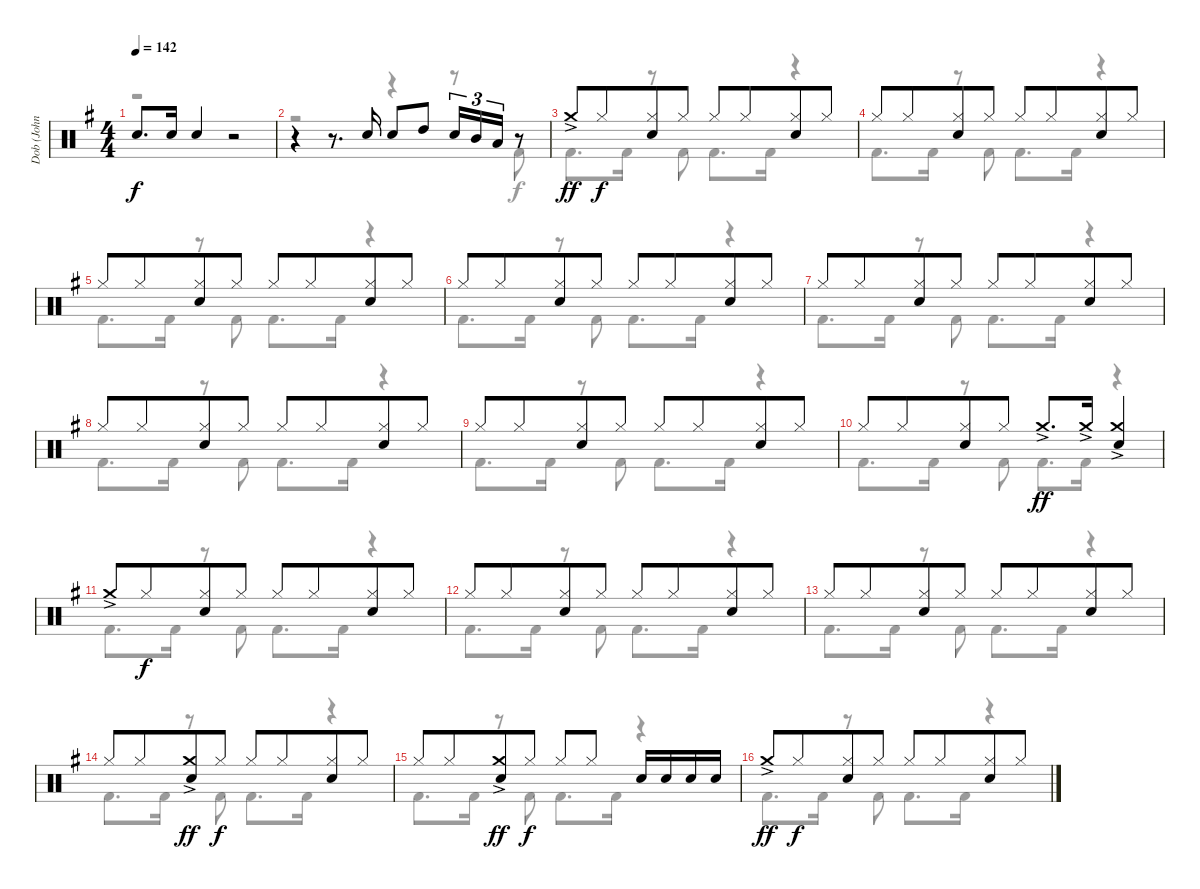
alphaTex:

\track ("Dob (John O'Reilly)" "Dob (John ") {instrument percussion}
\staff {score}
\articulation defaults
\voice
\ts (4 4)
\tempo 142
\clef neutral
\ks g "Electric Snare (hit)".8{d dy f} "Electric Snare (hit)".16 "Electric Snare (hit)".4
r.2 |
r.4 r.8{d} "Electric Snare (hit)".16 "Electric Snare (hit)".8 "High Tom (hit)".8 "Electric Snare (hit)".16{tu (3 2)} "Mid Tom (hit)".16{tu (3 2)} "Low Tom (hit)".16{tu (3 2)} r.8 |
"Crash medium (hit)"{ac}.8{dy ff} "Hi-Hat (closed)".8{dy f beam merge} ("Hi-Hat (closed)" "Electric Snare (hit)").8 "Hi-Hat (closed)".8 "Hi-Hat (closed)".8 "Hi-Hat (closed)".8{beam merge} ("Hi-Hat (closed)" "Electric Snare (hit)").8 "Hi-Hat (closed)".8 |
"Hi-Hat (closed)".8 "Hi-Hat (closed)".8{beam merge} ("Hi-Hat (closed)" "Electric Snare (hit)").8 "Hi-Hat (closed)".8 "Hi-Hat (closed)".8 "Hi-Hat (closed)".8{beam merge} ("Hi-Hat (closed)" "Electric Snare (hit)").8 "Hi-Hat (closed)".8 |
"Hi-Hat (closed)".8 "Hi-Hat (closed)".8{beam merge} ("Hi-Hat (closed)" "Electric Snare (hit)").8 "Hi-Hat (closed)".8 "Hi-Hat (closed)".8 "Hi-Hat (closed)".8{beam merge} ("Hi-Hat (closed)" "Electric Snare (hit)").8 "Hi-Hat (closed)".8 |
"Hi-Hat (closed)".8 "Hi-Hat (closed)".8{beam merge} ("Hi-Hat (closed)" "Electric Snare (hit)").8 "Hi-Hat (closed)".8 "Hi-Hat (closed)".8 "Hi-Hat (closed)".8{beam merge} ("Hi-Hat (closed)" "Electric Snare (hit)").8 "Hi-Hat (closed)".8 |
"Hi-Hat (closed)".8 "Hi-Hat (closed)".8{beam merge} ("Hi-Hat (closed)" "Electric Snare (hit)").8 "Hi-Hat (closed)".8 "Hi-Hat (closed)".8 "Hi-Hat (closed)".8{beam merge} ("Hi-Hat (closed)" "Electric Snare (hit)").8 "Hi-Hat (closed)".8 |
"Hi-Hat (closed)".8 "Hi-Hat (closed)".8{beam merge} ("Hi-Hat (closed)" "Electric Snare (hit)").8 "Hi-Hat (closed)".8 "Hi-Hat (closed)".8 "Hi-Hat (closed)".8{beam merge} ("Hi-Hat (closed)" "Electric Snare (hit)").8 "Hi-Hat (closed)".8 |
"Hi-Hat (closed)".8 "Hi-Hat (closed)".8{beam merge} ("Hi-Hat (closed)" "Electric Snare (hit)").8 "Hi-Hat (closed)".8 "Hi-Hat (closed)".8 "Hi-Hat (closed)".8{beam merge} ("Hi-Hat (closed)" "Electric Snare (hit)").8 "Hi-Hat (closed)".8 |
"Hi-Hat (closed)".8 "Hi-Hat (closed)".8{beam merge} ("Hi-Hat (closed)" "Electric Snare (hit)").8 "Hi-Hat (closed)".8 "Crash medium (hit)"{ac}.8{d dy ff} "Crash medium (hit)"{ac}.16 ("Crash medium (hit)"{ac} "Electric Snare (hit)").4 |
"Crash medium (hit)"{ac}.8 "Hi-Hat (closed)".8{dy f beam merge} ("Hi-Hat (closed)" "Electric Snare (hit)").8 "Hi-Hat (closed)".8 "Hi-Hat (closed)".8 "Hi-Hat (closed)".8{beam merge} ("Hi-Hat (closed)" "Electric Snare (hit)").8 "Hi-Hat (closed)".8 |
"Hi-Hat (closed)".8 "Hi-Hat (closed)".8{beam merge} ("Hi-Hat (closed)" "Electric Snare (hit)").8 "Hi-Hat (closed)".8 "Hi-Hat (closed)".8 "Hi-Hat (closed)".8{beam merge} ("Hi-Hat (closed)" "Electric Snare (hit)").8 "Hi-Hat (closed)".8 |
"Hi-Hat (closed)".8 "Hi-Hat (closed)".8{beam merge} ("Hi-Hat (closed)" "Electric Snare (hit)").8 "Hi-Hat (closed)".8 "Hi-Hat (closed)".8 "Hi-Hat (closed)".8{beam merge} ("Hi-Hat (closed)" "Electric Snare (hit)").8 "Hi-Hat (closed)".8 |
"Hi-Hat (closed)".8 "Hi-Hat (closed)".8{beam merge} ("Crash medium (hit)"{ac} "Electric Snare (hit)").8{dy ff} "Hi-Hat (closed)".8{dy f} "Hi-Hat (closed)".8 "Hi-Hat (closed)".8{beam merge} ("Hi-Hat (closed)" "Electric Snare (hit)").8 "Hi-Hat (closed)".8 |
"Hi-Hat (closed)".8 "Hi-Hat (closed)".8{beam merge} ("Crash medium (hit)"{ac} "Electric Snare (hit)").8{dy ff} "Hi-Hat (closed)".8{dy f} "Hi-Hat (closed)".8 "Hi-Hat (closed)".8 "Electric Snare (hit)".16 "Electric Snare (hit)".16 "Electric Snare (hit)".16 "Electric Snare (hit)".16 |
"Crash medium (hit)"{ac}.8{dy ff} "Hi-Hat (closed)".8{dy f beam merge} ("Hi-Hat (closed)" "Electric Snare (hit)").8 "Hi-Hat (closed)".8 "Hi-Hat (closed)".8 "Hi-Hat (closed)".8{beam merge} ("Hi-Hat (closed)" "Electric Snare (hit)").8 "Hi-Hat (closed)".8
\voice
\clef neutral
\ottava regular
\simile none
\ks g
r.1{dy f} |
r.2 r.4 r.8 "Kick (hit) 2".8 |
"Kick (hit) 2".8{d} "Kick (hit) 2".16 r.8 "Kick (hit) 2".8 "Kick (hit) 2".8{d} "Kick (hit) 2".16 r.4 |
"Kick (hit) 2".8{d} "Kick (hit) 2".16 r.8 "Kick (hit) 2".8 "Kick (hit) 2".8{d} "Kick (hit) 2".16 r.4 |
"Kick (hit) 2".8{d} "Kick (hit) 2".16 r.8 "Kick (hit) 2".8 "Kick (hit) 2".8{d} "Kick (hit) 2".16 r.4 |
"Kick (hit) 2".8{d} "Kick (hit) 2".16 r.8 "Kick (hit) 2".8 "Kick (hit) 2".8{d} "Kick (hit) 2".16 r.4 |
"Kick (hit) 2".8{d} "Kick (hit) 2".16 r.8 "Kick (hit) 2".8 "Kick (hit) 2".8{d} "Kick (hit) 2".16 r.4 |
"Kick (hit) 2".8{d} "Kick (hit) 2".16 r.8 "Kick (hit) 2".8 "Kick (hit) 2".8{d} "Kick (hit) 2".16 r.4 |
"Kick (hit) 2".8{d} "Kick (hit) 2".16 r.8 "Kick (hit) 2".8 "Kick (hit) 2".8{d} "Kick (hit) 2".16 r.4 |
"Kick (hit) 2".8{d} "Kick (hit) 2".16 r.8 "Kick (hit) 2".8 "Kick (hit) 2".8{d} "Kick (hit) 2".16 r.4 |
"Kick (hit) 2".8{d} "Kick (hit) 2".16 r.8 "Kick (hit) 2".8 "Kick (hit) 2".8{d} "Kick (hit) 2".16 r.4 |
"Kick (hit) 2".8{d} "Kick (hit) 2".16 r.8 "Kick (hit) 2".8 "Kick (hit) 2".8{d} "Kick (hit) 2".16 r.4 |
"Kick (hit) 2".8{d} "Kick (hit) 2".16 r.8 "Kick (hit) 2".8 "Kick (hit) 2".8{d} "Kick (hit) 2".16 r.4 |
"Kick (hit) 2".8{d} "Kick (hit) 2".16 r.8 "Kick (hit) 2".8 "Kick (hit) 2".8{d} "Kick (hit) 2".16 r.4 |
"Kick (hit) 2".8{d} "Kick (hit) 2".16 r.8 "Kick (hit) 2".8 "Kick (hit) 2".8{d} "Kick (hit) 2".16 r.4 |
"Kick (hit) 2".8{d} "Kick (hit) 2".16 r.8 "Kick (hit) 2".8 "Kick (hit) 2".8{d} "Kick (hit) 2".16 r.4
